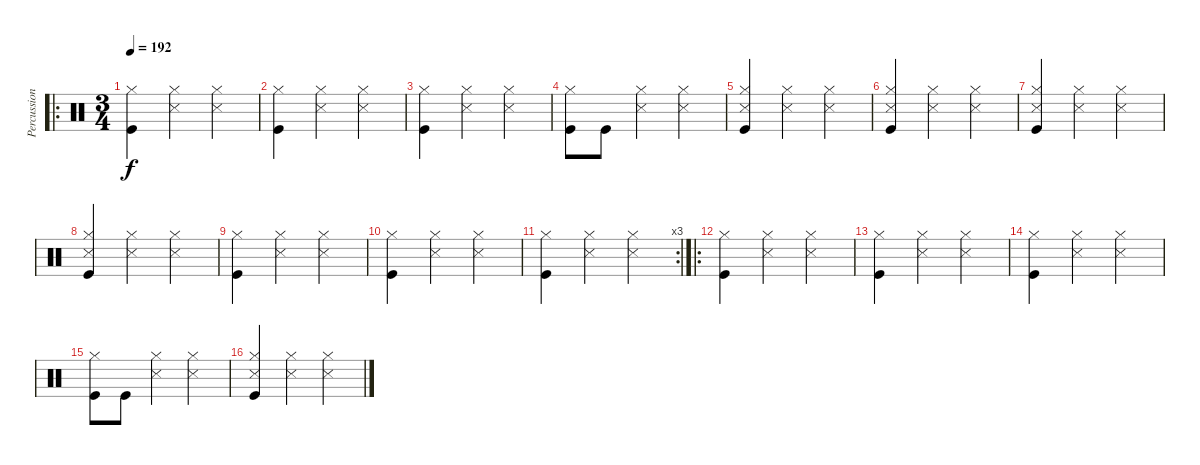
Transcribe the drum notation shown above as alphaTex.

\track ("Percussion" "Percussion") {instrument percussion}
\staff {score}
\articulation defaults
\ro
\ts (3 4)
\tempo 192
\clef neutral
\ks c
("Kick (hit)" "Hi-Hat (closed)").4{dy f} ("Hi-Hat (closed)" "Snare (side stick) 3").4 ("Hi-Hat (closed)" "Snare (side stick) 3").4 |
("Kick (hit)" "Hi-Hat (closed)").4 ("Hi-Hat (closed)" "Snare (side stick) 3").4 ("Hi-Hat (closed)" "Snare (side stick) 3").4 |
("Kick (hit)" "Hi-Hat (closed)").4 ("Hi-Hat (closed)" "Snare (side stick) 3").4 ("Hi-Hat (closed)" "Snare (side stick) 3").4 |
("Kick (hit)" "Hi-Hat (closed)").8 "Kick (hit)".8 ("Hi-Hat (closed)" "Snare (side stick) 3").4 ("Hi-Hat (closed)" "Snare (side stick) 3").4 |
("Hi-Hat (closed)" "Snare (side stick) 3" "Kick (hit)").4 ("Hi-Hat (closed)" "Snare (side stick) 3").4 ("Hi-Hat (closed)" "Snare (side stick) 3").4 |
("Hi-Hat (closed)" "Snare (side stick) 3" "Kick (hit)").4 ("Hi-Hat (closed)" "Snare (side stick) 3").4 ("Hi-Hat (closed)" "Snare (side stick) 3").4 |
("Hi-Hat (closed)" "Snare (side stick) 3" "Kick (hit)").4 ("Hi-Hat (closed)" "Snare (side stick) 3").4 ("Hi-Hat (closed)" "Snare (side stick) 3").4 |
("Hi-Hat (closed)" "Snare (side stick) 3" "Kick (hit)").4 ("Hi-Hat (closed)" "Snare (side stick) 3").4 ("Hi-Hat (closed)" "Snare (side stick) 3").4 |
("Kick (hit)" "Hi-Hat (closed)").4 ("Hi-Hat (closed)" "Snare (side stick) 3").4 ("Hi-Hat (closed)" "Snare (side stick) 3").4 |
("Kick (hit)" "Hi-Hat (closed)").4 ("Hi-Hat (closed)" "Snare (side stick) 3").4 ("Hi-Hat (closed)" "Snare (side stick) 3").4 |
\rc 3
("Kick (hit)" "Hi-Hat (closed)").4 ("Hi-Hat (closed)" "Snare (side stick) 3").4 ("Hi-Hat (closed)" "Snare (side stick) 3").4 |
\ro
("Kick (hit)" "Hi-Hat (closed)").4 ("Hi-Hat (closed)" "Snare (side stick) 3").4 ("Hi-Hat (closed)" "Snare (side stick) 3").4 |
("Kick (hit)" "Hi-Hat (closed)").4 ("Hi-Hat (closed)" "Snare (side stick) 3").4 ("Hi-Hat (closed)" "Snare (side stick) 3").4 |
("Kick (hit)" "Hi-Hat (closed)").4 ("Hi-Hat (closed)" "Snare (side stick) 3").4 ("Hi-Hat (closed)" "Snare (side stick) 3").4 |
("Kick (hit)" "Hi-Hat (closed)").8 "Kick (hit)".8 ("Hi-Hat (closed)" "Snare (side stick) 3").4 ("Hi-Hat (closed)" "Snare (side stick) 3").4 |
("Hi-Hat (closed)" "Snare (side stick) 3" "Kick (hit)").4 ("Hi-Hat (closed)" "Snare (side stick) 3").4 ("Hi-Hat (closed)" "Snare (side stick) 3").4
